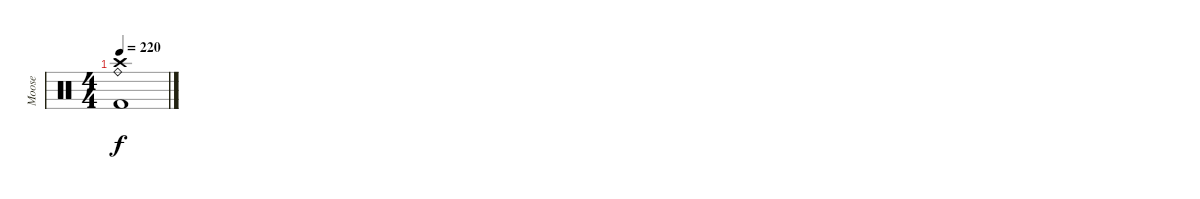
\track ("Moose" "Moose") {instrument percussion}
\staff {score}
\articulation defaults
\ts (4 4)
\tempo 220
\clef neutral
\ks c
("Kick (hit) 2" "Ride (bell)" "Crash high (hit)").1{dy f}
